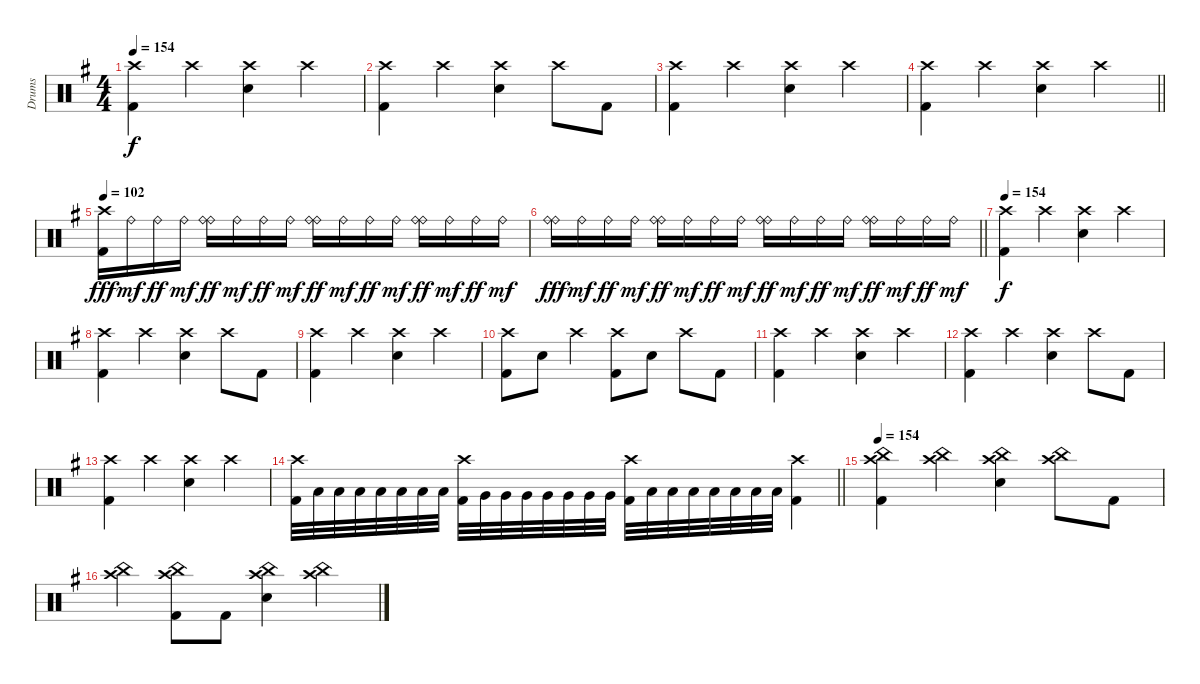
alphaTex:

\track ("Drums" "Drums") {instrument percussion}
\staff {score}
\articulation defaults
\ts (4 4)
\tempo 154
\clef neutral
\ks eminor
("Crash high (hit)" "Kick (hit) 2").4{dy f} "Crash high (hit)".4 ("Crash high (hit)" "Snare (hit) 2").4 "Crash high (hit)".4 |
("Crash high (hit)" "Kick (hit) 2").4 "Crash high (hit)".4 ("Crash high (hit)" "Snare (hit) 2").4 "Crash high (hit)".8 "Kick (hit) 2".8 |
("Crash high (hit)" "Kick (hit) 2").4 "Crash high (hit)".4 ("Crash high (hit)" "Snare (hit) 2").4 "Crash high (hit)".4 |
\barLineRight lightlight
("Crash high (hit)" "Kick (hit) 2").4 "Crash high (hit)".4 ("Crash high (hit)" "Snare (hit) 2").4 "Crash high (hit)".4 |
\tempo 102
("Crash high (hit)" "Kick (hit) 2").16{dy fff} "Ride (bell)".16{dy mf} "Ride (bell)".16{dy ff} "Ride (bell)".16{dy mf} ("Ride (bell)" "Ride (bell)").16{dy ff} "Ride (bell)".16{dy mf} "Ride (bell)".16{dy ff} "Ride (bell)".16{dy mf} ("Ride (bell)" "Ride (bell)").16{dy ff} "Ride (bell)".16{dy mf} "Ride (bell)".16{dy ff} "Ride (bell)".16{dy mf} ("Ride (bell)" "Ride (bell)").16{dy ff} "Ride (bell)".16{dy mf} "Ride (bell)".16{dy ff} "Ride (bell)".16{dy mf} |
\barLineRight lightlight
("Ride (bell)" "Ride (bell)").16{dy fff} "Ride (bell)".16{dy mf} "Ride (bell)".16{dy ff} "Ride (bell)".16{dy mf} ("Ride (bell)" "Ride (bell)").16{dy ff} "Ride (bell)".16{dy mf} "Ride (bell)".16{dy ff} "Ride (bell)".16{dy mf} ("Ride (bell)" "Ride (bell)").16{dy ff} "Ride (bell)".16{dy mf} "Ride (bell)".16{dy ff} "Ride (bell)".16{dy mf} ("Ride (bell)" "Ride (bell)").16{dy ff} "Ride (bell)".16{dy mf} "Ride (bell)".16{dy ff} "Ride (bell)".16{dy mf} |
\tempo 154
("Crash high (hit)" "Kick (hit) 2").4{dy f} "Crash high (hit)".4 ("Crash high (hit)" "Snare (hit) 2").4 "Crash high (hit)".4 |
("Crash high (hit)" "Kick (hit) 2").4 "Crash high (hit)".4 ("Crash high (hit)" "Snare (hit) 2").4 "Crash high (hit)".8 "Kick (hit) 2".8 |
("Crash high (hit)" "Kick (hit) 2").4 "Crash high (hit)".4 ("Crash high (hit)" "Snare (hit) 2").4 "Crash high (hit)".4 |
("Crash high (hit)" "Kick (hit) 2").8 "Snare (hit) 2".8 "Crash high (hit)".4 ("Crash high (hit)" "Kick (hit) 2").8 "Snare (hit) 2".8 "Crash high (hit)".8 "Kick (hit) 2".8 |
("Crash high (hit)" "Kick (hit) 2").4 "Crash high (hit)".4 ("Crash high (hit)" "Snare (hit) 2").4 "Crash high (hit)".4 |
("Crash high (hit)" "Kick (hit) 2").4 "Crash high (hit)".4 ("Crash high (hit)" "Snare (hit) 2").4 "Crash high (hit)".8 "Kick (hit) 2".8 |
("Crash high (hit)" "Kick (hit) 2").4 "Crash high (hit)".4 ("Crash high (hit)" "Snare (hit) 2").4 "Crash high (hit)".4 |
\barLineRight lightlight
("Crash high (hit)" "Kick (hit) 2").32 "Low Tom (hit)".32 "Low Tom (hit)".32 "Low Tom (hit)".32 "Low Tom (hit)".32 "Low Tom (hit)".32 "Low Tom (hit)".32 "Low Tom (hit)".32 ("Crash high (hit)" "Kick (hit) 2").32 "Very Low Tom (hit)".32 "Very Low Tom (hit)".32 "Very Low Tom (hit)".32 "Very Low Tom (hit)".32 "Very Low Tom (hit)".32 "Very Low Tom (hit)".32 "Very Low Tom (hit)".32 ("Crash high (hit)" "Kick (hit) 2").32 "Low Floor Tom (hit)".32 "Low Floor Tom (hit)".32 "Low Floor Tom (hit)".32 "Low Floor Tom (hit)".32 "Low Floor Tom (hit)".32 "Low Floor Tom (hit)".32 "Low Floor Tom (hit)".32 ("Crash high (hit)" "Kick (hit) 2").4 |
\tempo 154
("Crash high (hit)" "China (hit)" "Kick (hit) 2").4 ("Crash high (hit)" "China (hit)").4 ("Crash high (hit)" "China (hit)" "Snare (hit) 2").4 ("Crash high (hit)" "China (hit)").8 "Kick (hit) 2".8 |
("Crash high (hit)" "China (hit)").4 ("Crash high (hit)" "China (hit)" "Kick (hit) 2").8 "Kick (hit) 2".8 ("Crash high (hit)" "China (hit)" "Snare (hit) 2").4 ("Crash high (hit)" "China (hit)").4
